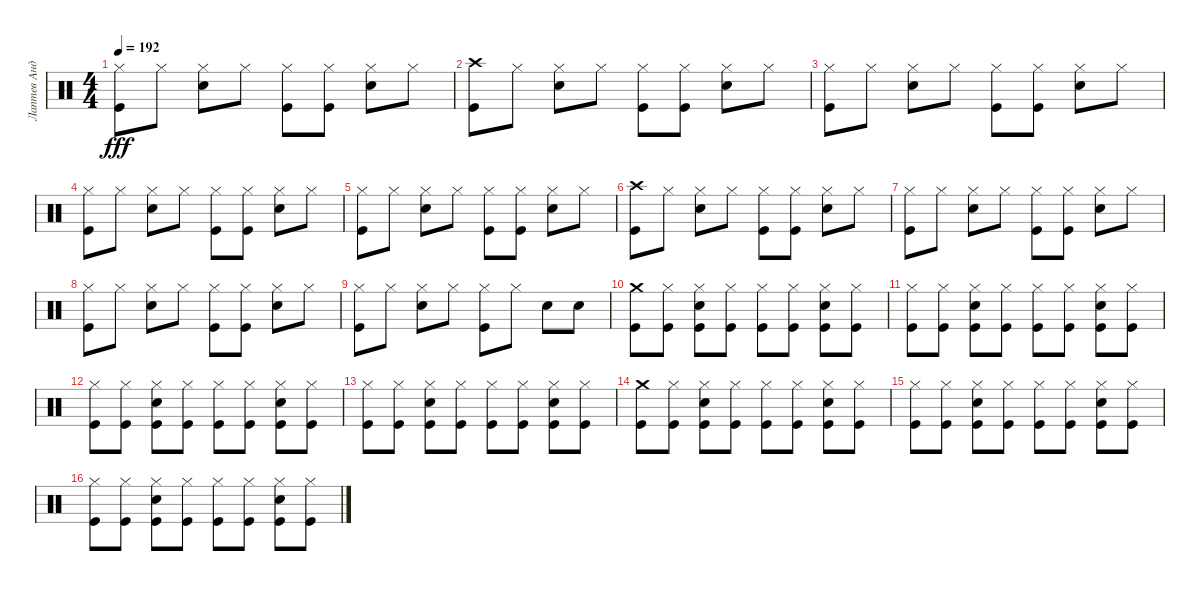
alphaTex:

\track ("Лаптев Андрей" "Лаптев Анд") {instrument percussion}
\staff {score}
\articulation defaults
\ts (4 4)
\tempo 192
\clef neutral
\ks c
("Kick (hit)" "Hi-Hat (closed)").8{dy fff} "Hi-Hat (closed)".8 ("Hi-Hat (closed)" "Electric Snare (hit)").8 "Hi-Hat (closed)".8 ("Kick (hit)" "Hi-Hat (closed)").8 ("Kick (hit)" "Hi-Hat (closed)").8 ("Electric Snare (hit)" "Hi-Hat (closed)").8 "Hi-Hat (closed)".8 |
("Crash high (hit)" "Kick (hit)").8 "Hi-Hat (closed)".8 ("Electric Snare (hit)" "Hi-Hat (closed)").8 "Hi-Hat (closed)".8 ("Kick (hit)" "Hi-Hat (closed)").8 ("Hi-Hat (closed)" "Kick (hit)").8 ("Hi-Hat (closed)" "Electric Snare (hit)").8 "Hi-Hat (closed)".8 |
("Hi-Hat (closed)" "Kick (hit)").8 "Hi-Hat (closed)".8 ("Electric Snare (hit)" "Hi-Hat (closed)").8 "Hi-Hat (closed)".8 ("Kick (hit)" "Hi-Hat (closed)").8 ("Hi-Hat (closed)" "Kick (hit)").8 ("Hi-Hat (closed)" "Electric Snare (hit)").8 "Hi-Hat (closed)".8 |
("Kick (hit)" "Hi-Hat (closed)").8 "Hi-Hat (closed)".8 ("Hi-Hat (closed)" "Electric Snare (hit)").8 "Hi-Hat (closed)".8 ("Hi-Hat (closed)" "Kick (hit)").8 ("Kick (hit)" "Hi-Hat (closed)").8 ("Hi-Hat (closed)" "Electric Snare (hit)").8 "Hi-Hat (closed)".8 |
("Hi-Hat (closed)" "Kick (hit)").8 "Hi-Hat (closed)".8 ("Hi-Hat (closed)" "Electric Snare (hit)").8 "Hi-Hat (closed)".8 ("Hi-Hat (closed)" "Kick (hit)").8 ("Hi-Hat (closed)" "Kick (hit)").8 ("Hi-Hat (closed)" "Electric Snare (hit)").8 "Hi-Hat (closed)".8 |
("Kick (hit)" "Crash high (hit)").8 "Hi-Hat (closed)".8 ("Hi-Hat (closed)" "Electric Snare (hit)").8 "Hi-Hat (closed)".8 ("Kick (hit)" "Hi-Hat (closed)").8 ("Kick (hit)" "Hi-Hat (closed)").8 ("Electric Snare (hit)" "Hi-Hat (closed)").8 "Hi-Hat (closed)".8 |
("Hi-Hat (closed)" "Kick (hit)").8 "Hi-Hat (closed)".8 ("Hi-Hat (closed)" "Electric Snare (hit)").8 "Hi-Hat (closed)".8 ("Kick (hit)" "Hi-Hat (closed)").8 ("Kick (hit)" "Hi-Hat (closed)").8 ("Electric Snare (hit)" "Hi-Hat (closed)").8 "Hi-Hat (closed)".8 |
("Hi-Hat (closed)" "Kick (hit)").8 "Hi-Hat (closed)".8 ("Hi-Hat (closed)" "Electric Snare (hit)").8 "Hi-Hat (closed)".8 ("Hi-Hat (closed)" "Kick (hit)").8 ("Hi-Hat (closed)" "Kick (hit)").8 ("Electric Snare (hit)" "Hi-Hat (closed)").8 "Hi-Hat (closed)".8 |
("Hi-Hat (closed)" "Kick (hit)").8 "Hi-Hat (closed)".8 ("Electric Snare (hit)" "Hi-Hat (closed)").8 "Hi-Hat (closed)".8 ("Kick (hit)" "Hi-Hat (closed)").8 "Hi-Hat (closed)".8 "Electric Snare (hit)".8 "Electric Snare (hit)".8 |
("Kick (hit)" "Crash medium (hit)").8 ("Kick (hit)" "Hi-Hat (closed)").8 ("Hi-Hat (closed)" "Electric Snare (hit)" "Kick (hit)").8 ("Kick (hit)" "Hi-Hat (closed)").8 ("Kick (hit)" "Hi-Hat (closed)").8 ("Hi-Hat (closed)" "Kick (hit)").8 ("Kick (hit)" "Electric Snare (hit)" "Hi-Hat (closed)").8 ("Hi-Hat (closed)" "Kick (hit)").8 |
("Kick (hit)" "Hi-Hat (closed)").8 ("Hi-Hat (closed)" "Kick (hit)").8 ("Hi-Hat (closed)" "Electric Snare (hit)" "Kick (hit)").8 ("Hi-Hat (closed)" "Kick (hit)").8 ("Kick (hit)" "Hi-Hat (closed)").8 ("Kick (hit)" "Hi-Hat (closed)").8 ("Electric Snare (hit)" "Kick (hit)" "Hi-Hat (closed)").8 ("Kick (hit)" "Hi-Hat (closed)").8 |
("Kick (hit)" "Hi-Hat (closed)").8 ("Hi-Hat (closed)" "Kick (hit)").8 ("Kick (hit)" "Hi-Hat (closed)" "Electric Snare (hit)").8 ("Hi-Hat (closed)" "Kick (hit)").8 ("Kick (hit)" "Hi-Hat (closed)").8 ("Hi-Hat (closed)" "Kick (hit)").8 ("Kick (hit)" "Hi-Hat (closed)" "Electric Snare (hit)").8 ("Hi-Hat (closed)" "Kick (hit)").8 |
("Kick (hit)" "Hi-Hat (closed)").8 ("Kick (hit)" "Hi-Hat (closed)").8 ("Kick (hit)" "Hi-Hat (closed)" "Electric Snare (hit)").8 ("Hi-Hat (closed)" "Kick (hit)").8 ("Kick (hit)" "Hi-Hat (closed)").8 ("Kick (hit)" "Hi-Hat (closed)").8 ("Hi-Hat (closed)" "Kick (hit)" "Electric Snare (hit)").8 ("Hi-Hat (closed)" "Kick (hit)").8 |
("Crash medium (hit)" "Kick (hit)").8 ("Kick (hit)" "Hi-Hat (closed)").8 ("Hi-Hat (closed)" "Electric Snare (hit)" "Kick (hit)").8 ("Hi-Hat (closed)" "Kick (hit)").8 ("Kick (hit)" "Hi-Hat (closed)").8 ("Kick (hit)" "Hi-Hat (closed)").8 ("Kick (hit)" "Hi-Hat (closed)" "Electric Snare (hit)").8 ("Hi-Hat (closed)" "Kick (hit)").8 |
("Hi-Hat (closed)" "Kick (hit)").8 ("Kick (hit)" "Hi-Hat (closed)").8 ("Hi-Hat (closed)" "Electric Snare (hit)" "Kick (hit)").8 ("Kick (hit)" "Hi-Hat (closed)").8 ("Kick (hit)" "Hi-Hat (closed)").8 ("Kick (hit)" "Hi-Hat (closed)").8 ("Electric Snare (hit)" "Kick (hit)" "Hi-Hat (closed)").8 ("Kick (hit)" "Hi-Hat (closed)").8 |
("Hi-Hat (closed)" "Kick (hit)").8 ("Kick (hit)" "Hi-Hat (closed)").8 ("Hi-Hat (closed)" "Electric Snare (hit)" "Kick (hit)").8 ("Hi-Hat (closed)" "Kick (hit)").8 ("Kick (hit)" "Hi-Hat (closed)").8 ("Hi-Hat (closed)" "Kick (hit)").8 ("Hi-Hat (closed)" "Kick (hit)" "Electric Snare (hit)").8 ("Kick (hit)" "Hi-Hat (closed)").8
